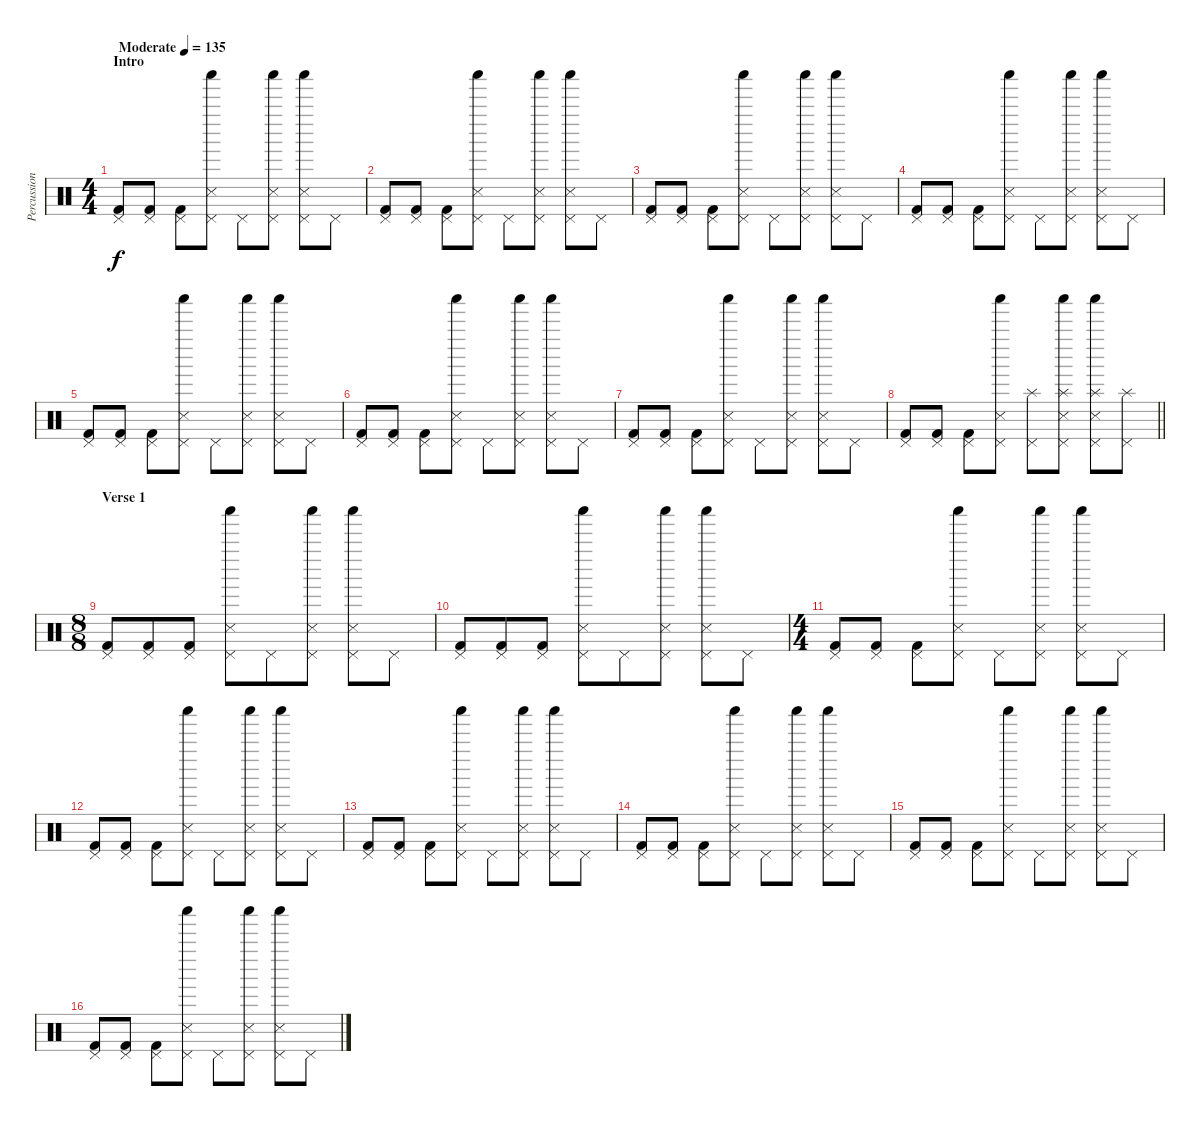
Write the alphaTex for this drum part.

\track ("Percussion" "Percussion") {instrument percussion}
\staff {score}
\articulation defaults
\ts (4 4)
\section ("" "Intro")
\tempo (135 "Moderate")
\clef neutral
\ks c
("Kick (hit) 2" "Pedal Hi-Hat (hit)").8{dy f} ("Kick (hit) 2" "Pedal Hi-Hat (hit)").8 ("Kick (hit) 2" "Pedal Hi-Hat (hit)").8 ("Metronome (hit)" "Shaker (hit)" "Pedal Hi-Hat (hit)").8 "Pedal Hi-Hat (hit)".8 ("Metronome (hit)" "Shaker (hit)" "Pedal Hi-Hat (hit)").8 ("Metronome (hit)" "Shaker (hit)" "Pedal Hi-Hat (hit)").8 "Pedal Hi-Hat (hit)".8 |
("Kick (hit) 2" "Pedal Hi-Hat (hit)").8 ("Kick (hit) 2" "Pedal Hi-Hat (hit)").8 ("Kick (hit) 2" "Pedal Hi-Hat (hit)").8 ("Metronome (hit)" "Shaker (hit)" "Pedal Hi-Hat (hit)").8 "Pedal Hi-Hat (hit)".8 ("Metronome (hit)" "Shaker (hit)" "Pedal Hi-Hat (hit)").8 ("Metronome (hit)" "Shaker (hit)" "Pedal Hi-Hat (hit)").8 "Pedal Hi-Hat (hit)".8 |
("Kick (hit) 2" "Pedal Hi-Hat (hit)").8 ("Kick (hit) 2" "Pedal Hi-Hat (hit)").8 ("Kick (hit) 2" "Pedal Hi-Hat (hit)").8 ("Metronome (hit)" "Shaker (hit)" "Pedal Hi-Hat (hit)").8 "Pedal Hi-Hat (hit)".8 ("Metronome (hit)" "Shaker (hit)" "Pedal Hi-Hat (hit)").8 ("Metronome (hit)" "Shaker (hit)" "Pedal Hi-Hat (hit)").8 "Pedal Hi-Hat (hit)".8 |
("Kick (hit) 2" "Pedal Hi-Hat (hit)").8 ("Kick (hit) 2" "Pedal Hi-Hat (hit)").8 ("Kick (hit) 2" "Pedal Hi-Hat (hit)").8 ("Metronome (hit)" "Shaker (hit)" "Pedal Hi-Hat (hit)").8 "Pedal Hi-Hat (hit)".8 ("Metronome (hit)" "Shaker (hit)" "Pedal Hi-Hat (hit)").8 ("Metronome (hit)" "Shaker (hit)" "Pedal Hi-Hat (hit)").8 "Pedal Hi-Hat (hit)".8 |
("Kick (hit) 2" "Pedal Hi-Hat (hit)").8 ("Kick (hit) 2" "Pedal Hi-Hat (hit)").8 ("Kick (hit) 2" "Pedal Hi-Hat (hit)").8 ("Metronome (hit)" "Shaker (hit)" "Pedal Hi-Hat (hit)").8 "Pedal Hi-Hat (hit)".8 ("Metronome (hit)" "Shaker (hit)" "Pedal Hi-Hat (hit)").8 ("Metronome (hit)" "Shaker (hit)" "Pedal Hi-Hat (hit)").8 "Pedal Hi-Hat (hit)".8 |
("Kick (hit) 2" "Pedal Hi-Hat (hit)").8 ("Kick (hit) 2" "Pedal Hi-Hat (hit)").8 ("Kick (hit) 2" "Pedal Hi-Hat (hit)").8 ("Metronome (hit)" "Shaker (hit)" "Pedal Hi-Hat (hit)").8 "Pedal Hi-Hat (hit)".8 ("Metronome (hit)" "Shaker (hit)" "Pedal Hi-Hat (hit)").8 ("Metronome (hit)" "Shaker (hit)" "Pedal Hi-Hat (hit)").8 "Pedal Hi-Hat (hit)".8 |
("Kick (hit) 2" "Pedal Hi-Hat (hit)").8 ("Kick (hit) 2" "Pedal Hi-Hat (hit)").8 ("Kick (hit) 2" "Pedal Hi-Hat (hit)").8 ("Metronome (hit)" "Shaker (hit)" "Pedal Hi-Hat (hit)").8 "Pedal Hi-Hat (hit)".8 ("Metronome (hit)" "Shaker (hit)" "Pedal Hi-Hat (hit)").8 ("Metronome (hit)" "Shaker (hit)" "Pedal Hi-Hat (hit)").8 "Pedal Hi-Hat (hit)".8 |
\barLineRight lightlight
("Kick (hit) 2" "Pedal Hi-Hat (hit)").8 ("Kick (hit) 2" "Pedal Hi-Hat (hit)").8 ("Kick (hit) 2" "Pedal Hi-Hat (hit)").8 ("Metronome (hit)" "Shaker (hit)" "Pedal Hi-Hat (hit)").8 ("Splash (hit)" "Pedal Hi-Hat (hit)").8 ("Metronome (hit)" "Shaker (hit)" "Splash (hit)" "Pedal Hi-Hat (hit)").8 ("Metronome (hit)" "Shaker (hit)" "Splash (hit)" "Pedal Hi-Hat (hit)").8 ("Splash (hit)" "Pedal Hi-Hat (hit)").8 |
\ts (8 8)
\section ("" "Verse 1")
("Kick (hit) 2" "Pedal Hi-Hat (hit)").8 ("Kick (hit) 2" "Pedal Hi-Hat (hit)").8 ("Kick (hit) 2" "Pedal Hi-Hat (hit)").8 ("Metronome (hit)" "Shaker (hit)" "Pedal Hi-Hat (hit)").8 "Pedal Hi-Hat (hit)".8 ("Metronome (hit)" "Shaker (hit)" "Pedal Hi-Hat (hit)").8 ("Metronome (hit)" "Shaker (hit)" "Pedal Hi-Hat (hit)").8 "Pedal Hi-Hat (hit)".8 |
("Kick (hit) 2" "Pedal Hi-Hat (hit)").8 ("Kick (hit) 2" "Pedal Hi-Hat (hit)").8 ("Kick (hit) 2" "Pedal Hi-Hat (hit)").8 ("Metronome (hit)" "Shaker (hit)" "Pedal Hi-Hat (hit)").8 "Pedal Hi-Hat (hit)".8 ("Metronome (hit)" "Shaker (hit)" "Pedal Hi-Hat (hit)").8 ("Metronome (hit)" "Shaker (hit)" "Pedal Hi-Hat (hit)").8 "Pedal Hi-Hat (hit)".8 |
\ts (4 4)
("Kick (hit) 2" "Pedal Hi-Hat (hit)").8 ("Kick (hit) 2" "Pedal Hi-Hat (hit)").8 ("Kick (hit) 2" "Pedal Hi-Hat (hit)").8 ("Metronome (hit)" "Shaker (hit)" "Pedal Hi-Hat (hit)").8 "Pedal Hi-Hat (hit)".8 ("Metronome (hit)" "Shaker (hit)" "Pedal Hi-Hat (hit)").8 ("Metronome (hit)" "Shaker (hit)" "Pedal Hi-Hat (hit)").8 "Pedal Hi-Hat (hit)".8 |
("Kick (hit) 2" "Pedal Hi-Hat (hit)").8 ("Kick (hit) 2" "Pedal Hi-Hat (hit)").8 ("Kick (hit) 2" "Pedal Hi-Hat (hit)").8 ("Metronome (hit)" "Shaker (hit)" "Pedal Hi-Hat (hit)").8 "Pedal Hi-Hat (hit)".8 ("Metronome (hit)" "Shaker (hit)" "Pedal Hi-Hat (hit)").8 ("Metronome (hit)" "Shaker (hit)" "Pedal Hi-Hat (hit)").8 "Pedal Hi-Hat (hit)".8 |
("Kick (hit) 2" "Pedal Hi-Hat (hit)").8 ("Kick (hit) 2" "Pedal Hi-Hat (hit)").8 ("Kick (hit) 2" "Pedal Hi-Hat (hit)").8 ("Metronome (hit)" "Shaker (hit)" "Pedal Hi-Hat (hit)").8 "Pedal Hi-Hat (hit)".8 ("Metronome (hit)" "Shaker (hit)" "Pedal Hi-Hat (hit)").8 ("Metronome (hit)" "Shaker (hit)" "Pedal Hi-Hat (hit)").8 "Pedal Hi-Hat (hit)".8 |
("Kick (hit) 2" "Pedal Hi-Hat (hit)").8 ("Kick (hit) 2" "Pedal Hi-Hat (hit)").8 ("Kick (hit) 2" "Pedal Hi-Hat (hit)").8 ("Metronome (hit)" "Shaker (hit)" "Pedal Hi-Hat (hit)").8 "Pedal Hi-Hat (hit)".8 ("Metronome (hit)" "Shaker (hit)" "Pedal Hi-Hat (hit)").8 ("Metronome (hit)" "Shaker (hit)" "Pedal Hi-Hat (hit)").8 "Pedal Hi-Hat (hit)".8 |
("Kick (hit) 2" "Pedal Hi-Hat (hit)").8 ("Kick (hit) 2" "Pedal Hi-Hat (hit)").8 ("Kick (hit) 2" "Pedal Hi-Hat (hit)").8 ("Metronome (hit)" "Shaker (hit)" "Pedal Hi-Hat (hit)").8 "Pedal Hi-Hat (hit)".8 ("Metronome (hit)" "Shaker (hit)" "Pedal Hi-Hat (hit)").8 ("Metronome (hit)" "Shaker (hit)" "Pedal Hi-Hat (hit)").8 "Pedal Hi-Hat (hit)".8 |
("Kick (hit) 2" "Pedal Hi-Hat (hit)").8 ("Kick (hit) 2" "Pedal Hi-Hat (hit)").8 ("Kick (hit) 2" "Pedal Hi-Hat (hit)").8 ("Metronome (hit)" "Shaker (hit)" "Pedal Hi-Hat (hit)").8 "Pedal Hi-Hat (hit)".8 ("Metronome (hit)" "Shaker (hit)" "Pedal Hi-Hat (hit)").8 ("Metronome (hit)" "Shaker (hit)" "Pedal Hi-Hat (hit)").8 "Pedal Hi-Hat (hit)".8
